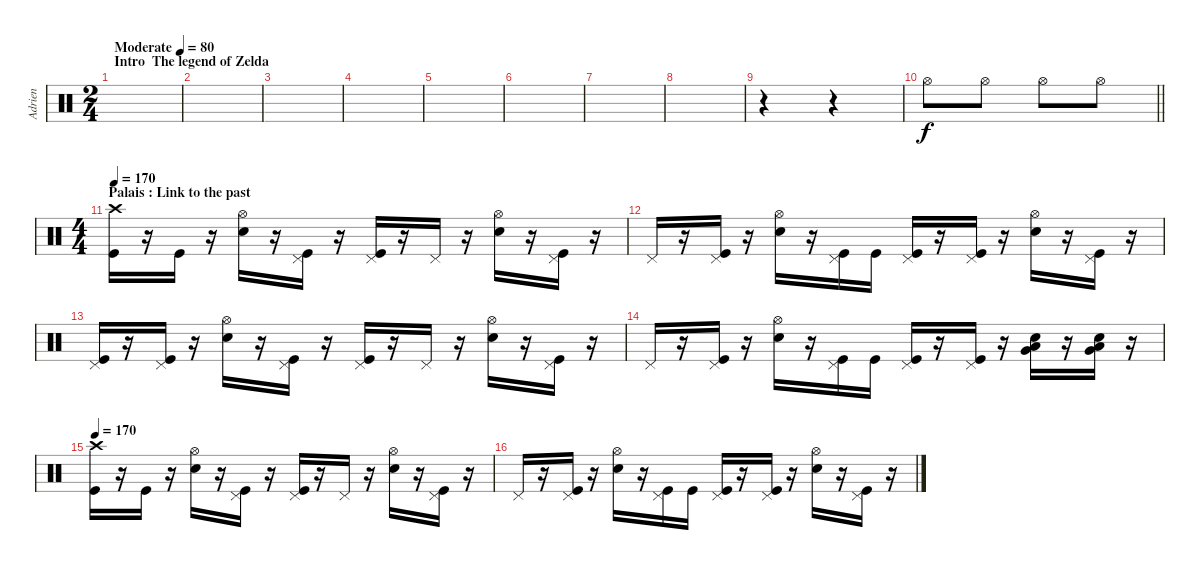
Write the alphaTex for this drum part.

\track ("Adrien" "Adrien") {instrument percussion}
\staff {score}
\articulation defaults
\ts (2 4)
\section ("" "Intro  The legend of Zelda ")
\tempo (80 "Moderate")
\clef neutral
\ks c
|
|
|
|
|
|
|
|
r.4 r.4 |
\barLineRight lightlight "Hi-Hat (open)".8 "Hi-Hat (open)".8 "Hi-Hat (open)".8 "Hi-Hat (open)".8
|
\ts (4 4)
\section ("" "Palais : Link to the past")
\tempo 170
("Crash high (hit)" "Kick (hit)").16 r.16 "Kick (hit)".16 r.16 ("Hi-Hat (open)" "Electric Snare (hit)").16 r.16 ("Pedal Hi-Hat (hit)" "Kick (hit)").16 r.16 ("Pedal Hi-Hat (hit)" "Kick (hit)").16 r.16 "Pedal Hi-Hat (hit)".16 r.16 ("Hi-Hat (open)" "Electric Snare (hit)").16 r.16 ("Pedal Hi-Hat (hit)" "Kick (hit)").16 r.16 |
"Pedal Hi-Hat (hit)".16 r.16 ("Pedal Hi-Hat (hit)" "Kick (hit)").16 r.16 ("Hi-Hat (open)" "Electric Snare (hit)").16 r.16 ("Pedal Hi-Hat (hit)" "Kick (hit)").16 "Kick (hit)".16 ("Pedal Hi-Hat (hit)" "Kick (hit)").16 r.16 ("Pedal Hi-Hat (hit)" "Kick (hit)").16 r.16 ("Hi-Hat (open)" "Electric Snare (hit)").16 r.16 ("Pedal Hi-Hat (hit)" "Kick (hit)").16 r.16 |
("Pedal Hi-Hat (hit)" "Kick (hit)").16 r.16 ("Pedal Hi-Hat (hit)" "Kick (hit)").16 r.16 ("Hi-Hat (open)" "Electric Snare (hit)").16 r.16 ("Pedal Hi-Hat (hit)" "Kick (hit)").16 r.16 ("Pedal Hi-Hat (hit)" "Kick (hit)").16 r.16 "Pedal Hi-Hat (hit)".16 r.16 ("Hi-Hat (open)" "Electric Snare (hit)").16 r.16 ("Pedal Hi-Hat (hit)" "Kick (hit)").16 r.16 |
"Pedal Hi-Hat (hit)".16 r.16 ("Pedal Hi-Hat (hit)" "Kick (hit)").16 r.16 ("Hi-Hat (open)" "Electric Snare (hit)").16 r.16 ("Pedal Hi-Hat (hit)" "Kick (hit)").16 "Kick (hit)".16 ("Pedal Hi-Hat (hit)" "Kick (hit)").16 r.16 ("Pedal Hi-Hat (hit)" "Kick (hit)").16 r.16 ("Very Low Tom (hit)" "Low Floor Tom (hit)" "Electric Snare (hit)").16 r.16 ("Very Low Tom (hit)" "Low Floor Tom (hit)" "Electric Snare (hit)").16 r.16 |
\tempo 170
("Crash high (hit)" "Kick (hit)").16 r.16 "Kick (hit)".16 r.16 ("Hi-Hat (open)" "Electric Snare (hit)").16 r.16 ("Pedal Hi-Hat (hit)" "Kick (hit)").16 r.16 ("Pedal Hi-Hat (hit)" "Kick (hit)").16 r.16 "Pedal Hi-Hat (hit)".16 r.16 ("Hi-Hat (open)" "Electric Snare (hit)").16 r.16 ("Pedal Hi-Hat (hit)" "Kick (hit)").16 r.16 |
"Pedal Hi-Hat (hit)".16 r.16 ("Pedal Hi-Hat (hit)" "Kick (hit)").16 r.16 ("Hi-Hat (open)" "Electric Snare (hit)").16 r.16 ("Pedal Hi-Hat (hit)" "Kick (hit)").16 "Kick (hit)".16 ("Pedal Hi-Hat (hit)" "Kick (hit)").16 r.16 ("Pedal Hi-Hat (hit)" "Kick (hit)").16 r.16 ("Hi-Hat (open)" "Electric Snare (hit)").16 r.16 ("Pedal Hi-Hat (hit)" "Kick (hit)").16 r.16
